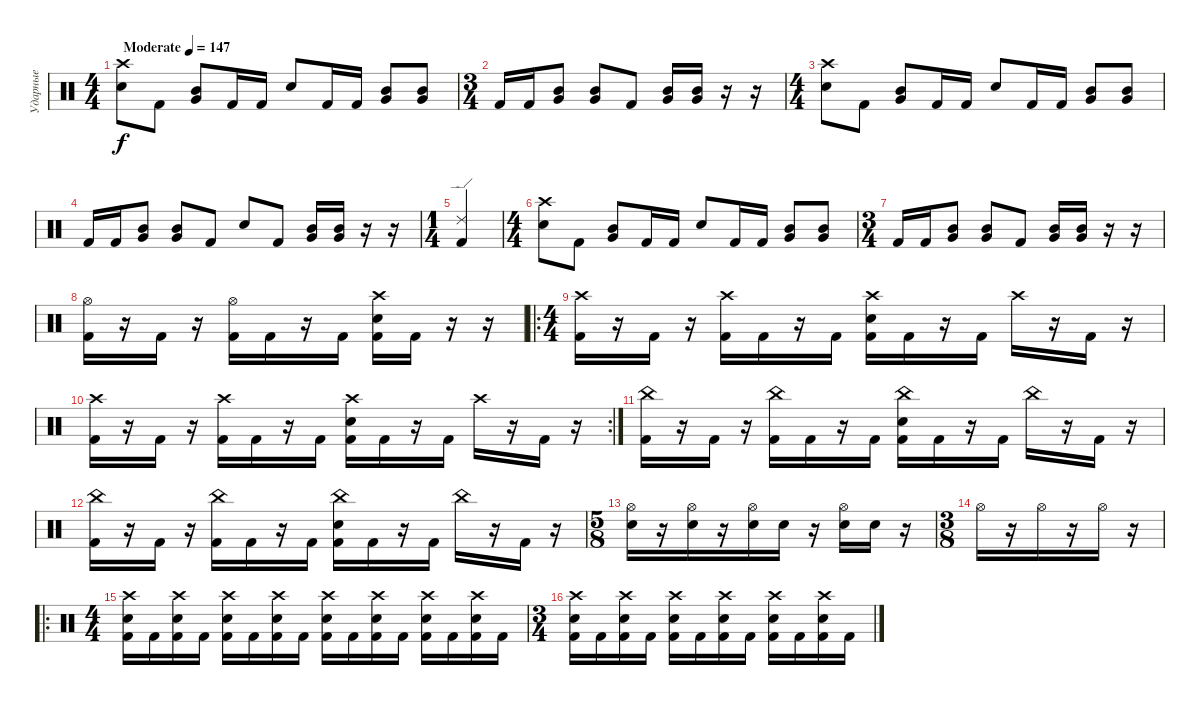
\track ("Ударные" "Ударные") {instrument percussion}
\staff {score}
\articulation defaults
\ts (4 4)
\tempo (147 "Moderate")
\clef neutral
\ks c
("Crash high (hit)" "Electric Snare (hit)").8{dy f} "Kick (hit) 2".8 ("Mid Tom (hit)" "Very Low Tom (hit)").8 "Kick (hit) 2".16 "Kick (hit) 2".16 "Electric Snare (hit)".8 "Kick (hit) 2".16 "Kick (hit) 2".16 ("Mid Tom (hit)" "Very Low Tom (hit)").8 ("Mid Tom (hit)" "Very Low Tom (hit)").8 |
\ts (3 4)
"Kick (hit) 2".16 "Kick (hit) 2".16 ("Mid Tom (hit)" "Very Low Tom (hit)").8 ("Mid Tom (hit)" "Very Low Tom (hit)").8 "Kick (hit) 2".8 ("Mid Tom (hit)" "Very Low Tom (hit)").16 ("Mid Tom (hit)" "Very Low Tom (hit)").16 r.16 r.16 |
\ts (4 4)
("Crash high (hit)" "Electric Snare (hit)").8 "Kick (hit) 2".8 ("Mid Tom (hit)" "Very Low Tom (hit)").8 "Kick (hit) 2".16 "Kick (hit) 2".16 "Electric Snare (hit)".8 "Kick (hit) 2".16 "Kick (hit) 2".16 ("Mid Tom (hit)" "Very Low Tom (hit)").8 ("Mid Tom (hit)" "Very Low Tom (hit)").8 |
"Kick (hit) 2".16 "Kick (hit) 2".16 ("Mid Tom (hit)" "Very Low Tom (hit)").8 ("Mid Tom (hit)" "Very Low Tom (hit)").8 "Kick (hit) 2".8 "Electric Snare (hit)".8 "Kick (hit) 2".8 ("Mid Tom (hit)" "Very Low Tom (hit)").16 ("Mid Tom (hit)" "Very Low Tom (hit)").16 r.16 r.16 |
\ts (1 4)
("Ride (edge) 2" "Kick (hit) 2").4 |
\ts (4 4)
("Crash high (hit)" "Electric Snare (hit)").8 "Kick (hit) 2".8 ("Mid Tom (hit)" "Very Low Tom (hit)").8 "Kick (hit) 2".16 "Kick (hit) 2".16 "Electric Snare (hit)".8 "Kick (hit) 2".16 "Kick (hit) 2".16 ("Mid Tom (hit)" "Very Low Tom (hit)").8 ("Mid Tom (hit)" "Very Low Tom (hit)").8 |
\ts (3 4)
"Kick (hit) 2".16 "Kick (hit) 2".16 ("Mid Tom (hit)" "Very Low Tom (hit)").8 ("Mid Tom (hit)" "Very Low Tom (hit)").8 "Kick (hit) 2".8 ("Mid Tom (hit)" "Very Low Tom (hit)").16 ("Mid Tom (hit)" "Very Low Tom (hit)").16 r.16 r.16 |
("Hi-Hat (open)" "Kick (hit) 2").16 r.16 "Kick (hit) 2".16 r.16 ("Hi-Hat (open)" "Kick (hit) 2").16 "Kick (hit) 2".16 r.16 "Kick (hit) 2".16 ("Crash high (hit)" "Electric Snare (hit)" "Kick (hit) 2").16 "Kick (hit) 2".16 r.16 r.16 |
\ro
\ts (4 4)
("Crash high (hit)" "Kick (hit) 2").16 r.16 "Kick (hit) 2".16 r.16 ("Crash high (hit)" "Kick (hit) 2").16 "Kick (hit) 2".16 r.16 "Kick (hit) 2".16 ("Crash high (hit)" "Electric Snare (hit)" "Kick (hit) 2").16 "Kick (hit) 2".16 r.16 "Kick (hit) 2".16 "Crash high (hit)".16 r.16 "Kick (hit) 2".16 r.16 |
\rc 2
("Crash high (hit)" "Kick (hit) 2").16 r.16 "Kick (hit) 2".16 r.16 ("Crash high (hit)" "Kick (hit) 2").16 "Kick (hit) 2".16 r.16 "Kick (hit) 2".16 ("Crash high (hit)" "Electric Snare (hit)" "Kick (hit) 2").16 "Kick (hit) 2".16 r.16 "Kick (hit) 2".16 "Crash high (hit)".16 r.16 "Kick (hit) 2".16 r.16 |
("China (hit)" "Kick (hit) 2").16 r.16 "Kick (hit) 2".16 r.16 ("China (hit)" "Kick (hit) 2").16 "Kick (hit) 2".16 r.16 "Kick (hit) 2".16 ("China (hit)" "Electric Snare (hit)" "Kick (hit) 2").16 "Kick (hit) 2".16 r.16 "Kick (hit) 2".16 "China (hit)".16 r.16 "Kick (hit) 2".16 r.16 |
("China (hit)" "Kick (hit) 2").16 r.16 "Kick (hit) 2".16 r.16 ("China (hit)" "Kick (hit) 2").16 "Kick (hit) 2".16 r.16 "Kick (hit) 2".16 ("China (hit)" "Electric Snare (hit)" "Kick (hit) 2").16 "Kick (hit) 2".16 r.16 "Kick (hit) 2".16 "China (hit)".16 r.16 "Kick (hit) 2".16 r.16 |
\ts (5 8)
("Hi-Hat (open)" "Electric Snare (hit)").16 r.16 ("Hi-Hat (open)" "Electric Snare (hit)").16 r.16 ("Hi-Hat (open)" "Electric Snare (hit)").16 "Electric Snare (hit)".16 r.16 ("Hi-Hat (open)" "Electric Snare (hit)").16 "Electric Snare (hit)".16 r.16 |
\ts (3 8)
"Hi-Hat (open)".16 r.16 "Hi-Hat (open)".16 r.16 "Hi-Hat (open)".16 r.16 |
\ro
\ts (4 4)
("Crash high (hit)" "Electric Snare (hit)" "Kick (hit) 2").16 "Kick (hit) 2".16 ("Crash high (hit)" "Electric Snare (hit)" "Kick (hit) 2").16 "Kick (hit) 2".16 ("Crash high (hit)" "Electric Snare (hit)" "Kick (hit) 2").16 "Kick (hit) 2".16 ("Crash high (hit)" "Electric Snare (hit)" "Kick (hit) 2").16 "Kick (hit) 2".16 ("Crash high (hit)" "Electric Snare (hit)" "Kick (hit) 2").16 "Kick (hit) 2".16 ("Crash high (hit)" "Electric Snare (hit)" "Kick (hit) 2").16 "Kick (hit) 2".16 ("Crash high (hit)" "Electric Snare (hit)" "Kick (hit) 2").16 "Kick (hit) 2".16 ("Crash high (hit)" "Electric Snare (hit)" "Kick (hit) 2").16 "Kick (hit) 2".16 |
\ts (3 4)
("Crash high (hit)" "Electric Snare (hit)" "Kick (hit) 2").16 "Kick (hit) 2".16 ("Crash high (hit)" "Electric Snare (hit)" "Kick (hit) 2").16 "Kick (hit) 2".16 ("Crash high (hit)" "Electric Snare (hit)" "Kick (hit) 2").16 "Kick (hit) 2".16 ("Crash high (hit)" "Electric Snare (hit)" "Kick (hit) 2").16 "Kick (hit) 2".16 ("Crash high (hit)" "Electric Snare (hit)" "Kick (hit) 2").16 "Kick (hit) 2".16 ("Crash high (hit)" "Electric Snare (hit)" "Kick (hit) 2").16 "Kick (hit) 2".16
